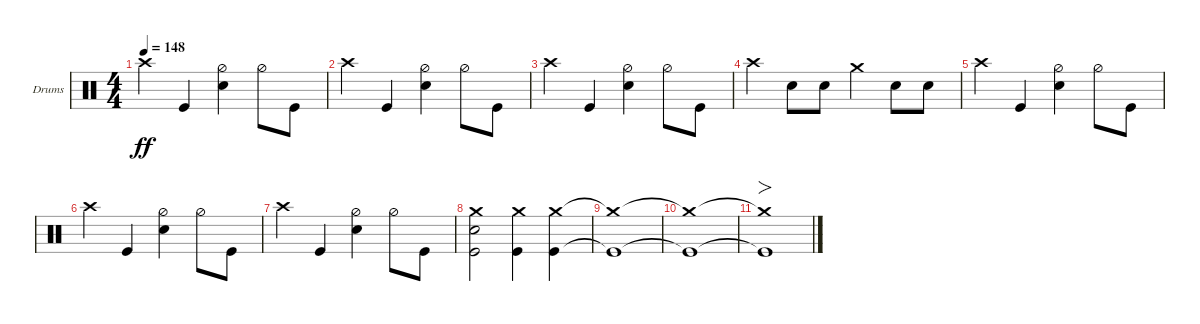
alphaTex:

\defaultSystemsLayout 4
\bracketExtendMode groupsimilarinstruments
\firstSystemTrackNameOrientation horizontal
\otherSystemsTrackNameOrientation horizontal
\track ("Drumkit" "Drums") {instrument percussion}
\staff {score}
\articulation defaults
\ts (4 4)
\tempo 148
\clef neutral
\ks c "Crash high (hit)".4{dy ff} "Kick (hit)".4
("Hi-Hat (half)" "Snare (hit) 2").4 "Hi-Hat (half)".8 "Kick (hit)".8 |
"Crash high (hit)".4 "Kick (hit)".4 ("Hi-Hat (half)" "Snare (hit) 2").4 "Hi-Hat (half)".8 "Kick (hit)".8 |
"Crash high (hit)".4 "Kick (hit)".4 ("Hi-Hat (half)" "Snare (hit) 2").4 "Hi-Hat (half)".8 "Kick (hit)".8 |
"Crash high (hit)".4 "Snare (hit) 2".8 "Snare (hit) 2".8 "Crash medium (hit)".4 "Snare (hit) 2".8 "Snare (hit) 2".8 |
"Crash high (hit)".4 "Kick (hit)".4 ("Hi-Hat (half)" "Snare (hit) 2").4 "Hi-Hat (half)".8 "Kick (hit)".8 |
"Crash high (hit)".4 "Kick (hit)".4 ("Hi-Hat (half)" "Snare (hit) 2").4 "Hi-Hat (half)".8 "Kick (hit)".8 |
"Crash high (hit)".4 "Kick (hit)".4 ("Hi-Hat (half)" "Snare (hit) 2").4 "Hi-Hat (half)".8 "Kick (hit)".8 |
("Crash medium (hit)" "Snare (hit) 2" "Kick (hit)").2 ("Crash medium (hit)" "Kick (hit)").4 ("Crash medium (hit)" "Kick (hit)").4 |
("Crash medium (hit)"{t} "Kick (hit)"{t}).1 |
("Crash medium (hit)"{t} "Kick (hit)"{t}).1 |
("Crash medium (hit)"{t} "Kick (hit)"{t}).1{fo}
